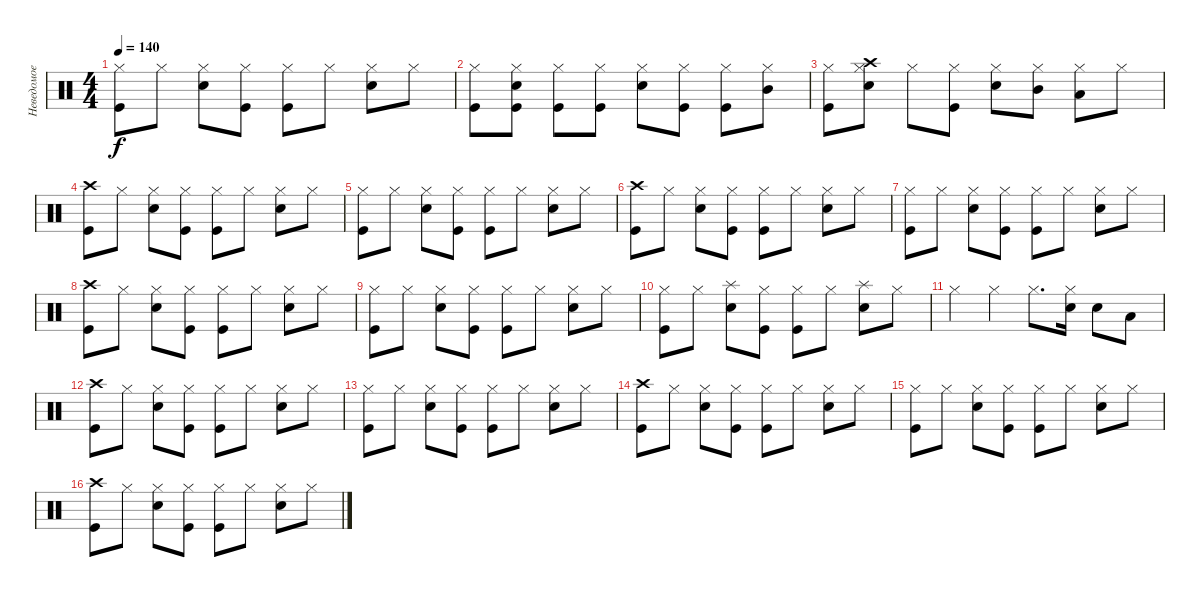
\track ("Неведомое существо" "Неведомое ") {instrument percussion}
\staff {score}
\articulation defaults
\ts (4 4)
\tempo 140
\clef neutral
\ks c
("Hi-Hat (closed)" "Kick (hit)").8{dy f} "Hi-Hat (closed)".8 ("Hi-Hat (closed)" "Snare (hit) 2").8 ("Hi-Hat (closed)" "Kick (hit)").8 ("Hi-Hat (closed)" "Kick (hit)").8 "Hi-Hat (closed)".8 ("Hi-Hat (closed)" "Snare (hit) 2").8 "Hi-Hat (closed)".8 |
("Hi-Hat (closed)" "Kick (hit)").8 ("Hi-Hat (closed)" "Snare (hit) 2" "Kick (hit)").8 ("Hi-Hat (closed)" "Kick (hit)").8 ("Hi-Hat (closed)" "Kick (hit)").8 ("Hi-Hat (closed)" "Snare (hit) 2").8 ("Hi-Hat (closed)" "Kick (hit)").8 ("Hi-Hat (closed)" "Kick (hit)").8 ("Hi-Hat (closed)" "Mid Tom (hit)").8 |
("Hi-Hat (closed)" "Kick (hit)").8 ("Hi-Hat (closed)" "Crash high (hit)" "Snare (hit) 2").8 "Hi-Hat (closed)".8 ("Hi-Hat (closed)" "Kick (hit)").8 ("Hi-Hat (closed)" "Snare (hit) 2").8 ("Hi-Hat (closed)" "Mid Tom (hit)").8 ("Hi-Hat (closed)" "Low Tom (hit)").8 "Hi-Hat (closed)".8 |
("Crash high (hit)" "Kick (hit)").8 "Hi-Hat (closed)".8 ("Hi-Hat (closed)" "Snare (hit) 2").8 ("Hi-Hat (closed)" "Kick (hit)").8 ("Hi-Hat (closed)" "Kick (hit)").8 "Hi-Hat (closed)".8 ("Hi-Hat (closed)" "Snare (hit) 2").8 "Hi-Hat (closed)".8 |
("Hi-Hat (closed)" "Kick (hit)").8 "Hi-Hat (closed)".8 ("Hi-Hat (closed)" "Snare (hit) 2").8 ("Hi-Hat (closed)" "Kick (hit)").8 ("Hi-Hat (closed)" "Kick (hit)").8 "Hi-Hat (closed)".8 ("Hi-Hat (closed)" "Snare (hit) 2").8 "Hi-Hat (closed)".8 |
("Crash high (hit)" "Kick (hit)").8 "Hi-Hat (closed)".8 ("Hi-Hat (closed)" "Snare (hit) 2").8 ("Hi-Hat (closed)" "Kick (hit)").8 ("Hi-Hat (closed)" "Kick (hit)").8 "Hi-Hat (closed)".8 ("Hi-Hat (closed)" "Snare (hit) 2").8 "Hi-Hat (closed)".8 |
("Hi-Hat (closed)" "Kick (hit)").8 "Hi-Hat (closed)".8 ("Hi-Hat (closed)" "Snare (hit) 2").8 ("Hi-Hat (closed)" "Kick (hit)").8 ("Hi-Hat (closed)" "Kick (hit)").8 "Hi-Hat (closed)".8 ("Hi-Hat (closed)" "Snare (hit) 2").8 "Hi-Hat (closed)".8 |
("Crash high (hit)" "Kick (hit)").8 "Hi-Hat (closed)".8 ("Hi-Hat (closed)" "Snare (hit) 2").8 ("Hi-Hat (closed)" "Kick (hit)").8 ("Hi-Hat (closed)" "Kick (hit)").8 "Hi-Hat (closed)".8 ("Hi-Hat (closed)" "Snare (hit) 2").8 "Hi-Hat (closed)".8 |
("Hi-Hat (closed)" "Kick (hit)").8 "Hi-Hat (closed)".8 ("Hi-Hat (closed)" "Snare (hit) 2").8 ("Hi-Hat (closed)" "Kick (hit)").8 ("Hi-Hat (closed)" "Kick (hit)").8 "Hi-Hat (closed)".8 ("Hi-Hat (closed)" "Snare (hit) 2").8 "Hi-Hat (closed)".8 |
("Hi-Hat (closed)" "Kick (hit)").8 "Hi-Hat (closed)".8 ("Splash (hit)" "Snare (hit) 2").8 ("Hi-Hat (closed)" "Kick (hit)").8 ("Hi-Hat (closed)" "Kick (hit)").8 "Hi-Hat (closed)".8 ("Splash (hit)" "Snare (hit) 2").8 "Hi-Hat (closed)".8 |
"Hi-Hat (closed)".4 "Hi-Hat (closed)".4 "Hi-Hat (closed)".8{d} ("Hi-Hat (closed)" "Snare (hit) 2").16 "Snare (hit) 2".8 "Low Tom (hit)".8 |
("Crash high (hit)" "Kick (hit)").8 "Hi-Hat (closed)".8 ("Hi-Hat (closed)" "Snare (hit) 2").8 ("Hi-Hat (closed)" "Kick (hit)").8 ("Hi-Hat (closed)" "Kick (hit)").8 "Hi-Hat (closed)".8 ("Hi-Hat (closed)" "Snare (hit) 2").8 "Hi-Hat (closed)".8 |
("Hi-Hat (closed)" "Kick (hit)").8 "Hi-Hat (closed)".8 ("Hi-Hat (closed)" "Snare (hit) 2").8 ("Hi-Hat (closed)" "Kick (hit)").8 ("Hi-Hat (closed)" "Kick (hit)").8 "Hi-Hat (closed)".8 ("Hi-Hat (closed)" "Snare (hit) 2").8 "Hi-Hat (closed)".8 |
("Crash high (hit)" "Kick (hit)").8 "Hi-Hat (closed)".8 ("Hi-Hat (closed)" "Snare (hit) 2").8 ("Hi-Hat (closed)" "Kick (hit)").8 ("Hi-Hat (closed)" "Kick (hit)").8 "Hi-Hat (closed)".8 ("Hi-Hat (closed)" "Snare (hit) 2").8 "Hi-Hat (closed)".8 |
("Hi-Hat (closed)" "Kick (hit)").8 "Hi-Hat (closed)".8 ("Hi-Hat (closed)" "Snare (hit) 2").8 ("Hi-Hat (closed)" "Kick (hit)").8 ("Hi-Hat (closed)" "Kick (hit)").8 "Hi-Hat (closed)".8 ("Hi-Hat (closed)" "Snare (hit) 2").8 "Hi-Hat (closed)".8 |
("Crash high (hit)" "Kick (hit)").8 "Hi-Hat (closed)".8 ("Hi-Hat (closed)" "Snare (hit) 2").8 ("Hi-Hat (closed)" "Kick (hit)").8 ("Hi-Hat (closed)" "Kick (hit)").8 "Hi-Hat (closed)".8 ("Hi-Hat (closed)" "Snare (hit) 2").8 "Hi-Hat (closed)".8
